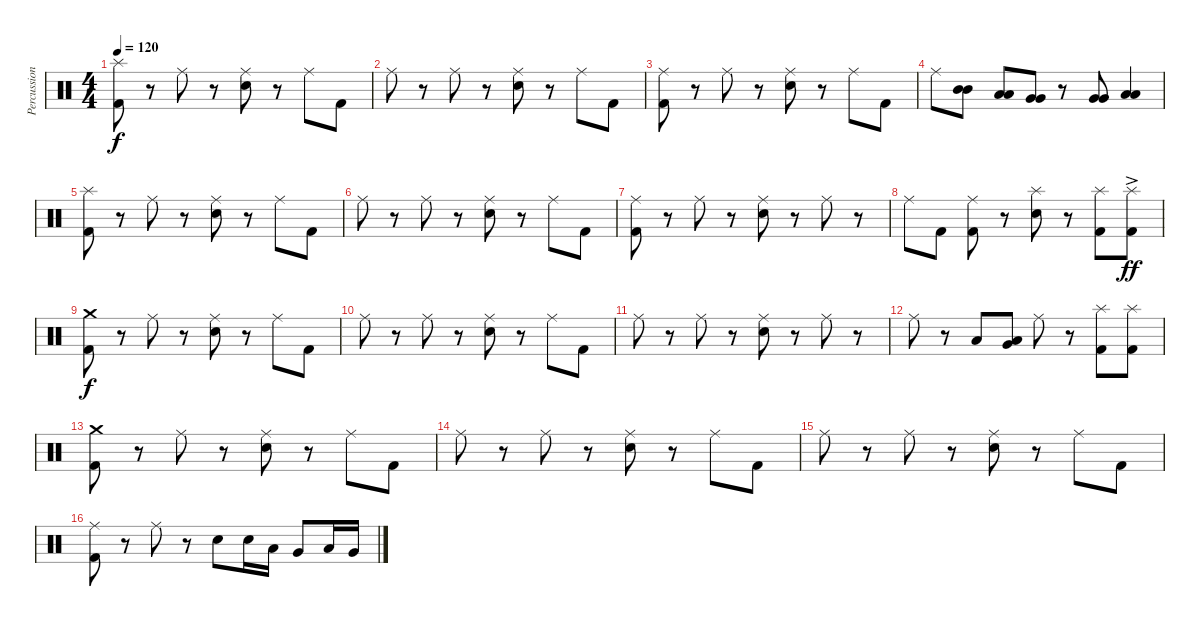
\track ("Percussion" "Percussion") {instrument percussion}
\staff {score}
\articulation defaults
\ts (4 4)
\tempo 120
\clef neutral
\ks c
("Kick (hit) 2" "Splash (hit)").8{dy f} r.8 "Ride (middle)".8 r.8 ("Electric Snare (hit)" "Ride (middle)").8 r.8 "Ride (middle)".8 "Kick (hit) 2".8 |
"Ride (middle)".8 r.8 "Ride (middle)".8 r.8 ("Electric Snare (hit)" "Ride (middle)").8 r.8 "Ride (middle)".8 "Kick (hit) 2".8 |
("Kick (hit) 2" "Ride (middle)").8 r.8 "Ride (middle)".8 r.8 ("Electric Snare (hit)" "Ride (middle)").8 r.8 "Ride (middle)".8 "Kick (hit) 2".8 |
"Ride (middle)".8 ("Mid Tom (hit)" "Mid Tom (hit)").8 ("Low Tom (hit)" "Low Tom (hit)").8 ("Very Low Tom (hit)" "Very Low Tom (hit)").8 r.8 ("Very Low Tom (hit)" "Very Low Tom (hit)").8 ("Low Floor Tom (hit)" "Low Floor Tom (hit)").4 |
("Kick (hit) 2" "Splash (hit)").8 r.8 "Ride (middle)".8 r.8 ("Electric Snare (hit)" "Ride (middle)").8 r.8 "Ride (middle)".8 "Kick (hit) 2".8 |
"Ride (middle)".8 r.8 "Ride (middle)".8 r.8 ("Electric Snare (hit)" "Ride (middle)").8 r.8 "Ride (middle)".8 "Kick (hit) 2".8 |
("Kick (hit) 2" "Ride (middle)").8 r.8 "Ride (middle)".8 r.8 ("Electric Snare (hit)" "Ride (middle)").8 r.8 "Ride (middle)".8 r.8 |
"Ride (middle)".8 "Kick (hit) 2".8 ("Kick (hit) 2" "Ride (middle)").8 r.8 ("Splash (hit)" "Electric Snare (hit)").8 r.8 ("Splash (hit)" "Kick (hit) 2").8 ("Splash (hit)" "Kick (hit) 2"{ac}).8{dy ff} |
("Kick (hit) 2" "Crash medium (hit)").8{dy f} r.8 "Ride (middle)".8 r.8 ("Electric Snare (hit)" "Ride (middle)").8 r.8 "Ride (middle)".8 "Kick (hit) 2".8 |
"Ride (middle)".8 r.8 "Ride (middle)".8 r.8 ("Electric Snare (hit)" "Ride (middle)").8 r.8 "Ride (middle)".8 "Kick (hit) 2".8 |
"Ride (middle)".8 r.8 "Ride (middle)".8 r.8 ("Electric Snare (hit)" "Ride (middle)").8 r.8 "Ride (middle)".8 r.8 |
"Ride (middle)".8 r.8 "Low Tom (hit)".8 ("Very Low Tom (hit)" "Low Floor Tom (hit)").8 "Ride (middle)".8 r.8 ("Splash (hit)" "Kick (hit) 2").8 ("Splash (hit)" "Kick (hit) 2").8 |
("Kick (hit) 2" "Crash medium (hit)").8 r.8 "Ride (middle)".8 r.8 ("Electric Snare (hit)" "Ride (middle)").8 r.8 "Ride (middle)".8 "Kick (hit) 2".8 |
"Ride (middle)".8 r.8 "Ride (middle)".8 r.8 ("Electric Snare (hit)" "Ride (middle)").8 r.8 "Ride (middle)".8 "Kick (hit) 2".8 |
"Ride (middle)".8 r.8 "Ride (middle)".8 r.8 ("Electric Snare (hit)" "Ride (middle)").8 r.8 "Ride (middle)".8 "Kick (hit) 2".8 |
("Kick (hit) 2" "Ride (middle)").8 r.8 "Ride (middle)".8 r.8 "Electric Snare (hit)".8 "Electric Snare (hit)".16 "Low Tom (hit)".16 "Very Low Tom (hit)".8 "Low Tom (hit)".16 "Very Low Tom (hit)".16
